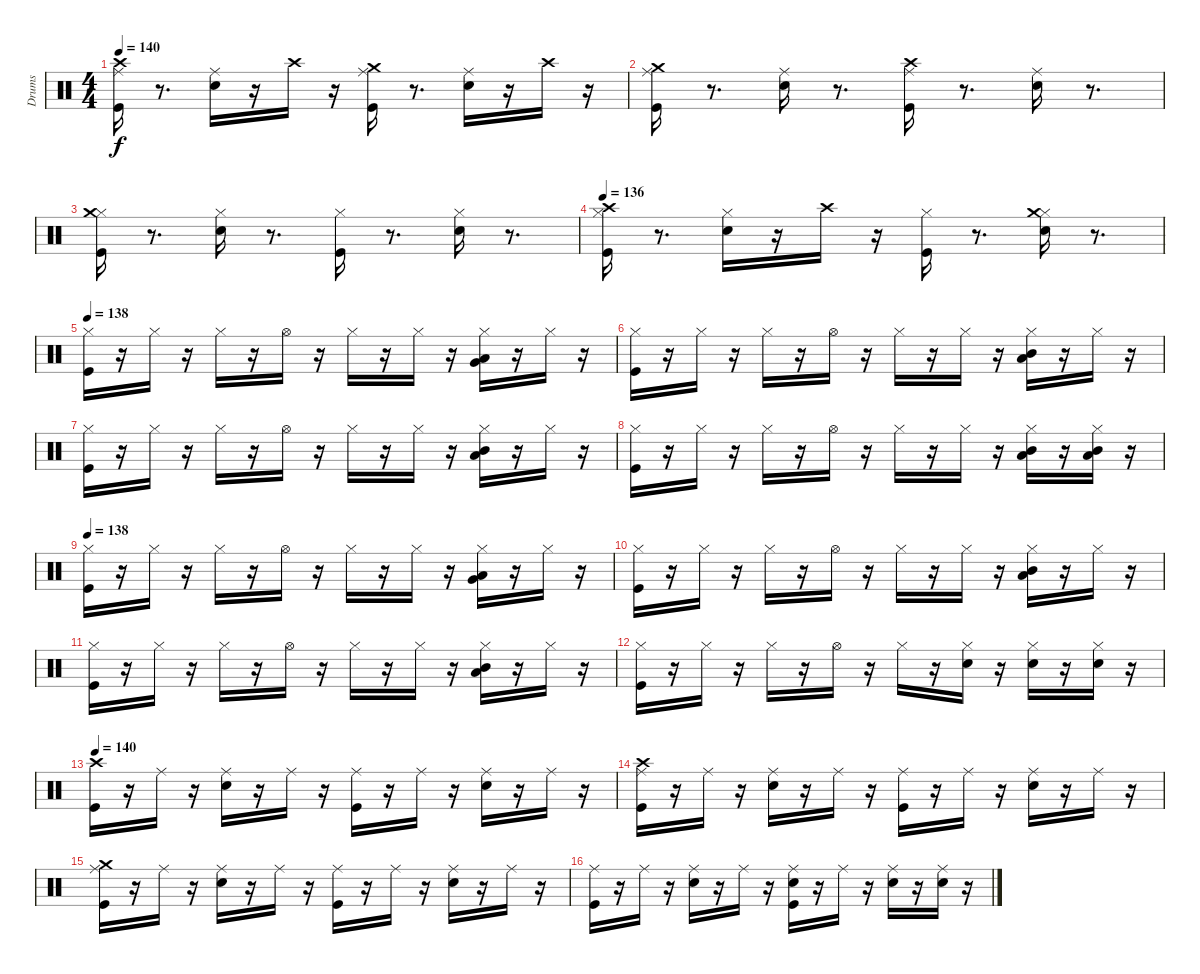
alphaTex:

\track ("Drums" "Drums") {instrument percussion}
\staff {score}
\articulation defaults
\ts (4 4)
\tempo 140
\clef neutral
\ks c
("Ride (middle)" "Crash high (hit)" "Kick (hit)").16{dy f} r.8{d} ("Snare (hit) 2" "Ride (middle)").16 r.16 "Crash high (hit)".16 r.16 ("Crash medium (hit)" "Kick (hit)" "Ride (middle)").16 r.8{d} ("Snare (hit) 2" "Ride (middle)").16 r.16 "Crash high (hit)".16 r.16 |
("Crash medium (hit)" "Kick (hit)" "Ride (middle)").16 r.8{d} ("Ride (middle)" "Snare (hit) 2").16 r.8{d} ("Crash high (hit)" "Ride (middle)" "Kick (hit)").16 r.8{d} ("Ride (middle)" "Snare (hit) 2").16 r.8{d} |
("Hi-Hat (closed)" "Crash medium (hit)" "Kick (hit)").16 r.8{d} ("Hi-Hat (closed)" "Snare (hit) 2").16 r.8{d} ("Hi-Hat (closed)" "Kick (hit)").16 r.8{d} ("Hi-Hat (closed)" "Snare (hit) 2").16 r.8{d} |
\tempo 136
("Hi-Hat (closed)" "Crash high (hit)" "Kick (hit)").16 r.8{d} ("Hi-Hat (closed)" "Snare (hit) 2").16 r.16 "Crash high (hit)".16 r.16 ("Hi-Hat (closed)" "Kick (hit)").16 r.8{d} ("Hi-Hat (closed)" "Snare (hit) 2" "Crash medium (hit)").16 r.8{d} |
\tempo 138
("Hi-Hat (closed)" "Kick (hit)").16 r.16 "Hi-Hat (closed)".16 r.16 "Hi-Hat (closed)".16 r.16 "Hi-Hat (open)".16 r.16 "Hi-Hat (closed)".16 r.16 "Hi-Hat (closed)".16 r.16 ("Very Low Tom (hit)" "Low Tom (hit)" "Hi-Hat (closed)").16 r.16 "Hi-Hat (closed)".16 r.16 |
("Hi-Hat (closed)" "Kick (hit)").16 r.16 "Hi-Hat (closed)".16 r.16 "Hi-Hat (closed)".16 r.16 "Hi-Hat (open)".16 r.16 "Hi-Hat (closed)".16 r.16 "Hi-Hat (closed)".16 r.16 ("Mid Tom (hit)" "Low Tom (hit)" "Hi-Hat (closed)").16 r.16 "Hi-Hat (closed)".16 r.16 |
("Hi-Hat (closed)" "Kick (hit)").16 r.16 "Hi-Hat (closed)".16 r.16 "Hi-Hat (closed)".16 r.16 "Hi-Hat (open)".16 r.16 "Hi-Hat (closed)".16 r.16 "Hi-Hat (closed)".16 r.16 ("Low Tom (hit)" "Mid Tom (hit)" "Hi-Hat (closed)").16 r.16 "Hi-Hat (closed)".16 r.16 |
("Kick (hit)" "Hi-Hat (closed)").16 r.16 "Hi-Hat (closed)".16 r.16 "Hi-Hat (closed)".16 r.16 "Hi-Hat (open)".16 r.16 "Hi-Hat (closed)".16 r.16 "Hi-Hat (closed)".16 r.16 ("Mid Tom (hit)" "Low Tom (hit)" "Hi-Hat (closed)").16 r.16 ("Low Tom (hit)" "Mid Tom (hit)" "Hi-Hat (closed)").16 r.16 |
\tempo 138
("Kick (hit)" "Hi-Hat (closed)").16 r.16 "Hi-Hat (closed)".16 r.16 "Hi-Hat (closed)".16 r.16 "Hi-Hat (open)".16 r.16 "Hi-Hat (closed)".16 r.16 "Hi-Hat (closed)".16 r.16 ("Low Tom (hit)" "Very Low Tom (hit)" "Hi-Hat (closed)").16 r.16 "Hi-Hat (closed)".16 r.16 |
("Hi-Hat (closed)" "Kick (hit)").16 r.16 "Hi-Hat (closed)".16 r.16 "Hi-Hat (closed)".16 r.16 "Hi-Hat (open)".16 r.16 "Hi-Hat (closed)".16 r.16 "Hi-Hat (closed)".16 r.16 ("Low Tom (hit)" "Mid Tom (hit)" "Hi-Hat (closed)").16 r.16 "Hi-Hat (closed)".16 r.16 |
("Kick (hit)" "Hi-Hat (closed)").16 r.16 "Hi-Hat (closed)".16 r.16 "Hi-Hat (closed)".16 r.16 "Hi-Hat (open)".16 r.16 "Hi-Hat (closed)".16 r.16 "Hi-Hat (closed)".16 r.16 ("Mid Tom (hit)" "Low Tom (hit)" "Hi-Hat (closed)").16 r.16 "Hi-Hat (closed)".16 r.16 |
("Hi-Hat (closed)" "Kick (hit)").16 r.16 "Hi-Hat (closed)".16 r.16 "Hi-Hat (closed)".16 r.16 "Hi-Hat (open)".16 r.16 "Hi-Hat (closed)".16 r.16 ("Snare (hit) 2" "Hi-Hat (closed)").16 r.16 ("Snare (hit) 2" "Hi-Hat (closed)").16 r.16 ("Snare (hit) 2" "Hi-Hat (closed)").16 r.16 |
\tempo 140
("Crash high (hit)" "Kick (hit)").16 r.16 "Ride (middle)".16 r.16 ("Ride (middle)" "Snare (hit) 2").16 r.16 "Ride (middle)".16 r.16 ("Kick (hit)" "Ride (middle)").16 r.16 "Ride (middle)".16 r.16 ("Ride (middle)" "Snare (hit) 2").16 r.16 "Ride (middle)".16 r.16 |
("Crash high (hit)" "Kick (hit)" "Ride (middle)").16 r.16 "Ride (middle)".16 r.16 ("Snare (hit) 2" "Ride (middle)").16 r.16 "Ride (middle)".16 r.16 ("Kick (hit)" "Ride (middle)").16 r.16 "Ride (middle)".16 r.16 ("Snare (hit) 2" "Ride (middle)").16 r.16 "Ride (middle)".16 r.16 |
("Crash medium (hit)" "Kick (hit)" "Ride (middle)").16 r.16 "Ride (middle)".16 r.16 ("Snare (hit) 2" "Ride (middle)").16 r.16 "Ride (middle)".16 r.16 ("Kick (hit)" "Ride (middle)").16 r.16 "Ride (middle)".16 r.16 ("Snare (hit) 2" "Ride (middle)").16 r.16 "Ride (middle)".16 r.16 |
("Ride (middle)" "Kick (hit)").16 r.16 "Ride (middle)".16 r.16 ("Snare (hit) 2" "Ride (middle)").16 r.16 "Ride (middle)".16 r.16 ("Snare (hit) 2" "Kick (hit)" "Ride (middle)").16 r.16 "Ride (middle)".16 r.16 ("Ride (middle)" "Snare (hit) 2").16 r.16 ("Ride (middle)" "Snare (hit) 2").16 r.16
